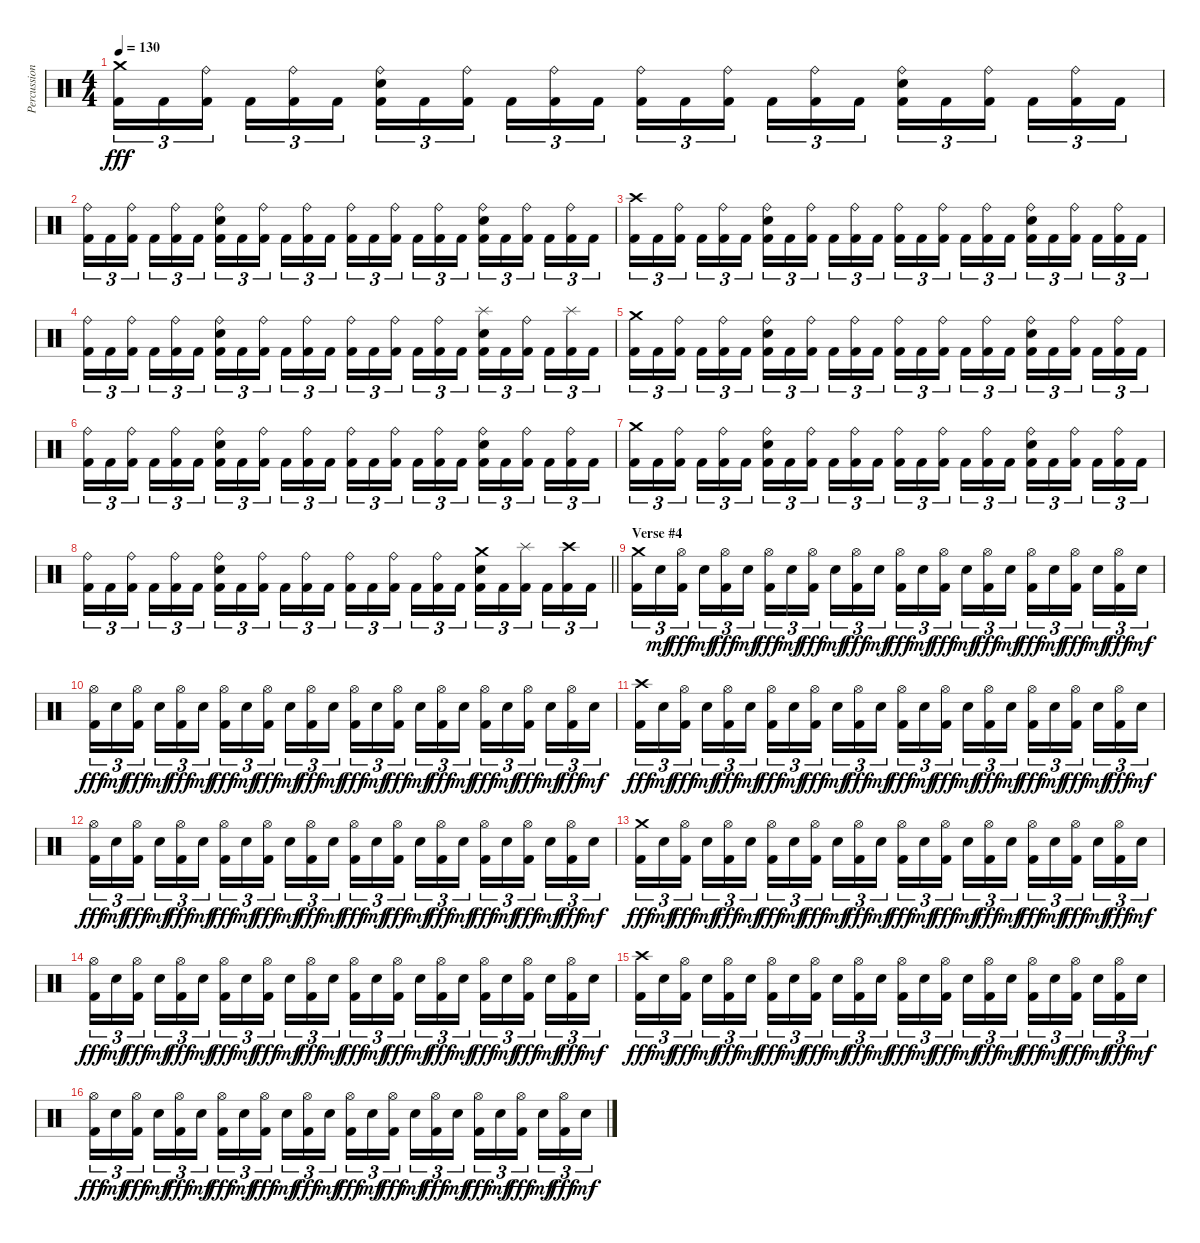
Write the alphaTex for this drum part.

\track ("Percussions" "Percussion") {instrument percussion}
\staff {score}
\articulation defaults
\ts (4 4)
\tempo 130
\clef neutral
\ks c
("Crash medium (hit)" "Kick (hit) 2").16{tu (3 2) dy fff} "Kick (hit) 2".16{tu (3 2)} ("Ride (bell)" "Kick (hit) 2").16{tu (3 2) beam splitsecondary} "Kick (hit) 2".16{tu (3 2)} ("Ride (bell)" "Kick (hit) 2").16{tu (3 2)} "Kick (hit) 2".16{tu (3 2)} ("Ride (bell)" "Snare (hit) 2" "Kick (hit) 2").16{tu (3 2)} "Kick (hit) 2".16{tu (3 2)} ("Ride (bell)" "Kick (hit) 2").16{tu (3 2) beam splitsecondary} "Kick (hit) 2".16{tu (3 2)} ("Ride (bell)" "Kick (hit) 2").16{tu (3 2)} "Kick (hit) 2".16{tu (3 2)} ("Ride (bell)" "Kick (hit) 2").16{tu (3 2)} "Kick (hit) 2".16{tu (3 2)} ("Ride (bell)" "Kick (hit) 2").16{tu (3 2) beam splitsecondary} "Kick (hit) 2".16{tu (3 2)} ("Ride (bell)" "Kick (hit) 2").16{tu (3 2)} "Kick (hit) 2".16{tu (3 2)} ("Ride (bell)" "Snare (hit) 2" "Kick (hit) 2").16{tu (3 2)} "Kick (hit) 2".16{tu (3 2)} ("Ride (bell)" "Kick (hit) 2").16{tu (3 2) beam splitsecondary} "Kick (hit) 2".16{tu (3 2)} ("Ride (bell)" "Kick (hit) 2").16{tu (3 2)} "Kick (hit) 2".16{tu (3 2)} |
("Ride (bell)" "Kick (hit) 2").16{tu (3 2)} "Kick (hit) 2".16{tu (3 2)} ("Ride (bell)" "Kick (hit) 2").16{tu (3 2) beam splitsecondary} "Kick (hit) 2".16{tu (3 2)} ("Ride (bell)" "Kick (hit) 2").16{tu (3 2)} "Kick (hit) 2".16{tu (3 2)} ("Ride (bell)" "Snare (hit) 2" "Kick (hit) 2").16{tu (3 2)} "Kick (hit) 2".16{tu (3 2)} ("Ride (bell)" "Kick (hit) 2").16{tu (3 2) beam splitsecondary} "Kick (hit) 2".16{tu (3 2)} ("Ride (bell)" "Kick (hit) 2").16{tu (3 2)} "Kick (hit) 2".16{tu (3 2)} ("Ride (bell)" "Kick (hit) 2").16{tu (3 2)} "Kick (hit) 2".16{tu (3 2)} ("Ride (bell)" "Kick (hit) 2").16{tu (3 2) beam splitsecondary} "Kick (hit) 2".16{tu (3 2)} ("Ride (bell)" "Kick (hit) 2").16{tu (3 2)} "Kick (hit) 2".16{tu (3 2)} ("Ride (bell)" "Snare (hit) 2" "Kick (hit) 2").16{tu (3 2)} "Kick (hit) 2".16{tu (3 2)} ("Ride (bell)" "Kick (hit) 2").16{tu (3 2) beam splitsecondary} "Kick (hit) 2".16{tu (3 2)} ("Ride (bell)" "Kick (hit) 2").16{tu (3 2)} "Kick (hit) 2".16{tu (3 2)} |
("Crash high (hit)" "Kick (hit) 2").16{tu (3 2)} "Kick (hit) 2".16{tu (3 2)} ("Ride (bell)" "Kick (hit) 2").16{tu (3 2) beam splitsecondary} "Kick (hit) 2".16{tu (3 2)} ("Ride (bell)" "Kick (hit) 2").16{tu (3 2)} "Kick (hit) 2".16{tu (3 2)} ("Ride (bell)" "Snare (hit) 2" "Kick (hit) 2").16{tu (3 2)} "Kick (hit) 2".16{tu (3 2)} ("Ride (bell)" "Kick (hit) 2").16{tu (3 2) beam splitsecondary} "Kick (hit) 2".16{tu (3 2)} ("Ride (bell)" "Kick (hit) 2").16{tu (3 2)} "Kick (hit) 2".16{tu (3 2)} ("Ride (bell)" "Kick (hit) 2").16{tu (3 2)} "Kick (hit) 2".16{tu (3 2)} ("Ride (bell)" "Kick (hit) 2").16{tu (3 2) beam splitsecondary} "Kick (hit) 2".16{tu (3 2)} ("Ride (bell)" "Kick (hit) 2").16{tu (3 2)} "Kick (hit) 2".16{tu (3 2)} ("Ride (bell)" "Snare (hit) 2" "Kick (hit) 2").16{tu (3 2)} "Kick (hit) 2".16{tu (3 2)} ("Ride (bell)" "Kick (hit) 2").16{tu (3 2) beam splitsecondary} "Kick (hit) 2".16{tu (3 2)} ("Ride (bell)" "Kick (hit) 2").16{tu (3 2)} "Kick (hit) 2".16{tu (3 2)} |
("Ride (bell)" "Kick (hit) 2").16{tu (3 2)} "Kick (hit) 2".16{tu (3 2)} ("Ride (bell)" "Kick (hit) 2").16{tu (3 2) beam splitsecondary} "Kick (hit) 2".16{tu (3 2)} ("Ride (bell)" "Kick (hit) 2").16{tu (3 2)} "Kick (hit) 2".16{tu (3 2)} ("Ride (bell)" "Snare (hit) 2" "Kick (hit) 2").16{tu (3 2)} "Kick (hit) 2".16{tu (3 2)} ("Ride (bell)" "Kick (hit) 2").16{tu (3 2) beam splitsecondary} "Kick (hit) 2".16{tu (3 2)} ("Ride (bell)" "Kick (hit) 2").16{tu (3 2)} "Kick (hit) 2".16{tu (3 2)} ("Ride (bell)" "Kick (hit) 2").16{tu (3 2)} "Kick (hit) 2".16{tu (3 2)} ("Ride (bell)" "Kick (hit) 2").16{tu (3 2) beam splitsecondary} "Kick (hit) 2".16{tu (3 2)} ("Ride (bell)" "Kick (hit) 2").16{tu (3 2)} "Kick (hit) 2".16{tu (3 2)} ("Splash (hit)" "Snare (hit) 2" "Kick (hit) 2").16{tu (3 2)} "Kick (hit) 2".16{tu (3 2)} ("Ride (bell)" "Kick (hit) 2").16{tu (3 2) beam splitsecondary} "Kick (hit) 2".16{tu (3 2)} ("Splash (hit)" "Kick (hit) 2").16{tu (3 2)} "Kick (hit) 2".16{tu (3 2)} |
("Crash medium (hit)" "Kick (hit) 2").16{tu (3 2)} "Kick (hit) 2".16{tu (3 2)} ("Ride (bell)" "Kick (hit) 2").16{tu (3 2) beam splitsecondary} "Kick (hit) 2".16{tu (3 2)} ("Ride (bell)" "Kick (hit) 2").16{tu (3 2)} "Kick (hit) 2".16{tu (3 2)} ("Ride (bell)" "Snare (hit) 2" "Kick (hit) 2").16{tu (3 2)} "Kick (hit) 2".16{tu (3 2)} ("Ride (bell)" "Kick (hit) 2").16{tu (3 2) beam splitsecondary} "Kick (hit) 2".16{tu (3 2)} ("Ride (bell)" "Kick (hit) 2").16{tu (3 2)} "Kick (hit) 2".16{tu (3 2)} ("Ride (bell)" "Kick (hit) 2").16{tu (3 2)} "Kick (hit) 2".16{tu (3 2)} ("Ride (bell)" "Kick (hit) 2").16{tu (3 2) beam splitsecondary} "Kick (hit) 2".16{tu (3 2)} ("Ride (bell)" "Kick (hit) 2").16{tu (3 2)} "Kick (hit) 2".16{tu (3 2)} ("Ride (bell)" "Snare (hit) 2" "Kick (hit) 2").16{tu (3 2)} "Kick (hit) 2".16{tu (3 2)} ("Ride (bell)" "Kick (hit) 2").16{tu (3 2) beam splitsecondary} "Kick (hit) 2".16{tu (3 2)} ("Ride (bell)" "Kick (hit) 2").16{tu (3 2)} "Kick (hit) 2".16{tu (3 2)} |
("Ride (bell)" "Kick (hit) 2").16{tu (3 2)} "Kick (hit) 2".16{tu (3 2)} ("Ride (bell)" "Kick (hit) 2").16{tu (3 2) beam splitsecondary} "Kick (hit) 2".16{tu (3 2)} ("Ride (bell)" "Kick (hit) 2").16{tu (3 2)} "Kick (hit) 2".16{tu (3 2)} ("Ride (bell)" "Snare (hit) 2" "Kick (hit) 2").16{tu (3 2)} "Kick (hit) 2".16{tu (3 2)} ("Ride (bell)" "Kick (hit) 2").16{tu (3 2) beam splitsecondary} "Kick (hit) 2".16{tu (3 2)} ("Ride (bell)" "Kick (hit) 2").16{tu (3 2)} "Kick (hit) 2".16{tu (3 2)} ("Ride (bell)" "Kick (hit) 2").16{tu (3 2)} "Kick (hit) 2".16{tu (3 2)} ("Ride (bell)" "Kick (hit) 2").16{tu (3 2) beam splitsecondary} "Kick (hit) 2".16{tu (3 2)} ("Ride (bell)" "Kick (hit) 2").16{tu (3 2)} "Kick (hit) 2".16{tu (3 2)} ("Ride (bell)" "Snare (hit) 2" "Kick (hit) 2").16{tu (3 2)} "Kick (hit) 2".16{tu (3 2)} ("Ride (bell)" "Kick (hit) 2").16{tu (3 2) beam splitsecondary} "Kick (hit) 2".16{tu (3 2)} ("Ride (bell)" "Kick (hit) 2").16{tu (3 2)} "Kick (hit) 2".16{tu (3 2)} |
("Crash medium (hit)" "Kick (hit) 2").16{tu (3 2)} "Kick (hit) 2".16{tu (3 2)} ("Ride (bell)" "Kick (hit) 2").16{tu (3 2) beam splitsecondary} "Kick (hit) 2".16{tu (3 2)} ("Ride (bell)" "Kick (hit) 2").16{tu (3 2)} "Kick (hit) 2".16{tu (3 2)} ("Ride (bell)" "Snare (hit) 2" "Kick (hit) 2").16{tu (3 2)} "Kick (hit) 2".16{tu (3 2)} ("Ride (bell)" "Kick (hit) 2").16{tu (3 2) beam splitsecondary} "Kick (hit) 2".16{tu (3 2)} ("Ride (bell)" "Kick (hit) 2").16{tu (3 2)} "Kick (hit) 2".16{tu (3 2)} ("Ride (bell)" "Kick (hit) 2").16{tu (3 2)} "Kick (hit) 2".16{tu (3 2)} ("Ride (bell)" "Kick (hit) 2").16{tu (3 2) beam splitsecondary} "Kick (hit) 2".16{tu (3 2)} ("Ride (bell)" "Kick (hit) 2").16{tu (3 2)} "Kick (hit) 2".16{tu (3 2)} ("Ride (bell)" "Snare (hit) 2" "Kick (hit) 2").16{tu (3 2)} "Kick (hit) 2".16{tu (3 2)} ("Ride (bell)" "Kick (hit) 2").16{tu (3 2) beam splitsecondary} "Kick (hit) 2".16{tu (3 2)} ("Ride (bell)" "Kick (hit) 2").16{tu (3 2)} "Kick (hit) 2".16{tu (3 2)} |
\barLineRight lightlight
("Ride (bell)" "Kick (hit) 2").16{tu (3 2)} "Kick (hit) 2".16{tu (3 2)} ("Ride (bell)" "Kick (hit) 2").16{tu (3 2) beam splitsecondary} "Kick (hit) 2".16{tu (3 2)} ("Ride (bell)" "Kick (hit) 2").16{tu (3 2)} "Kick (hit) 2".16{tu (3 2)} ("Ride (bell)" "Snare (hit) 2" "Kick (hit) 2").16{tu (3 2)} "Kick (hit) 2".16{tu (3 2)} ("Ride (bell)" "Kick (hit) 2").16{tu (3 2) beam splitsecondary} "Kick (hit) 2".16{tu (3 2)} ("Ride (bell)" "Kick (hit) 2").16{tu (3 2)} "Kick (hit) 2".16{tu (3 2)} ("Ride (bell)" "Kick (hit) 2").16{tu (3 2)} "Kick (hit) 2".16{tu (3 2)} ("Ride (bell)" "Kick (hit) 2").16{tu (3 2) beam splitsecondary} "Kick (hit) 2".16{tu (3 2)} ("Ride (bell)" "Kick (hit) 2").16{tu (3 2)} "Kick (hit) 2".16{tu (3 2)} ("Crash medium (hit)" "Snare (hit) 2" "Kick (hit) 2").16{tu (3 2)} "Kick (hit) 2".16{tu (3 2)} ("Splash (hit)" "Kick (hit) 2").16{tu (3 2) beam splitsecondary} "Kick (hit) 2".16{tu (3 2)} ("Crash high (hit)" "Kick (hit) 2").16{tu (3 2)} "Kick (hit) 2".16{tu (3 2)} |
\section ("" "Verse #4")
("Crash medium (hit)" "Kick (hit) 2").16{tu (3 2)} "Snare (hit) 2".16{tu (3 2) dy mf} ("Hi-Hat (open)" "Kick (hit) 2").16{tu (3 2) dy fff beam splitsecondary} "Snare (hit) 2".16{tu (3 2) dy mf} ("Hi-Hat (open)" "Kick (hit) 2").16{tu (3 2) dy fff} "Snare (hit) 2".16{tu (3 2) dy mf} ("Hi-Hat (open)" "Kick (hit) 2").16{tu (3 2) dy fff} "Snare (hit) 2".16{tu (3 2) dy mf} ("Hi-Hat (open)" "Kick (hit) 2").16{tu (3 2) dy fff beam splitsecondary} "Snare (hit) 2".16{tu (3 2) dy mf} ("Hi-Hat (open)" "Kick (hit) 2").16{tu (3 2) dy fff} "Snare (hit) 2".16{tu (3 2) dy mf} ("Hi-Hat (open)" "Kick (hit) 2").16{tu (3 2) dy fff} "Snare (hit) 2".16{tu (3 2) dy mf} ("Hi-Hat (open)" "Kick (hit) 2").16{tu (3 2) dy fff beam splitsecondary} "Snare (hit) 2".16{tu (3 2) dy mf} ("Hi-Hat (open)" "Kick (hit) 2").16{tu (3 2) dy fff} "Snare (hit) 2".16{tu (3 2) dy mf} ("Hi-Hat (open)" "Kick (hit) 2").16{tu (3 2) dy fff} "Snare (hit) 2".16{tu (3 2) dy mf} ("Hi-Hat (open)" "Kick (hit) 2").16{tu (3 2) dy fff beam splitsecondary} "Snare (hit) 2".16{tu (3 2) dy mf} ("Hi-Hat (open)" "Kick (hit) 2").16{tu (3 2) dy fff} "Snare (hit) 2".16{tu (3 2) dy mf} |
("Hi-Hat (open)" "Kick (hit) 2").16{tu (3 2) dy fff} "Snare (hit) 2".16{tu (3 2) dy mf} ("Hi-Hat (open)" "Kick (hit) 2").16{tu (3 2) dy fff beam splitsecondary} "Snare (hit) 2".16{tu (3 2) dy mf} ("Hi-Hat (open)" "Kick (hit) 2").16{tu (3 2) dy fff} "Snare (hit) 2".16{tu (3 2) dy mf} ("Hi-Hat (open)" "Kick (hit) 2").16{tu (3 2) dy fff} "Snare (hit) 2".16{tu (3 2) dy mf} ("Hi-Hat (open)" "Kick (hit) 2").16{tu (3 2) dy fff beam splitsecondary} "Snare (hit) 2".16{tu (3 2) dy mf} ("Hi-Hat (open)" "Kick (hit) 2").16{tu (3 2) dy fff} "Snare (hit) 2".16{tu (3 2) dy mf} ("Hi-Hat (open)" "Kick (hit) 2").16{tu (3 2) dy fff} "Snare (hit) 2".16{tu (3 2) dy mf} ("Hi-Hat (open)" "Kick (hit) 2").16{tu (3 2) dy fff beam splitsecondary} "Snare (hit) 2".16{tu (3 2) dy mf} ("Hi-Hat (open)" "Kick (hit) 2").16{tu (3 2) dy fff} "Snare (hit) 2".16{tu (3 2) dy mf} ("Hi-Hat (open)" "Kick (hit) 2").16{tu (3 2) dy fff} "Snare (hit) 2".16{tu (3 2) dy mf} ("Hi-Hat (open)" "Kick (hit) 2").16{tu (3 2) dy fff beam splitsecondary} "Snare (hit) 2".16{tu (3 2) dy mf} ("Hi-Hat (open)" "Kick (hit) 2").16{tu (3 2) dy fff} "Snare (hit) 2".16{tu (3 2) dy mf} |
("Crash high (hit)" "Kick (hit) 2").16{tu (3 2) dy fff} "Snare (hit) 2".16{tu (3 2) dy mf} ("Hi-Hat (open)" "Kick (hit) 2").16{tu (3 2) dy fff beam splitsecondary} "Snare (hit) 2".16{tu (3 2) dy mf} ("Hi-Hat (open)" "Kick (hit) 2").16{tu (3 2) dy fff} "Snare (hit) 2".16{tu (3 2) dy mf} ("Hi-Hat (open)" "Kick (hit) 2").16{tu (3 2) dy fff} "Snare (hit) 2".16{tu (3 2) dy mf} ("Hi-Hat (open)" "Kick (hit) 2").16{tu (3 2) dy fff beam splitsecondary} "Snare (hit) 2".16{tu (3 2) dy mf} ("Hi-Hat (open)" "Kick (hit) 2").16{tu (3 2) dy fff} "Snare (hit) 2".16{tu (3 2) dy mf} ("Hi-Hat (open)" "Kick (hit) 2").16{tu (3 2) dy fff} "Snare (hit) 2".16{tu (3 2) dy mf} ("Hi-Hat (open)" "Kick (hit) 2").16{tu (3 2) dy fff beam splitsecondary} "Snare (hit) 2".16{tu (3 2) dy mf} ("Hi-Hat (open)" "Kick (hit) 2").16{tu (3 2) dy fff} "Snare (hit) 2".16{tu (3 2) dy mf} ("Hi-Hat (open)" "Kick (hit) 2").16{tu (3 2) dy fff} "Snare (hit) 2".16{tu (3 2) dy mf} ("Hi-Hat (open)" "Kick (hit) 2").16{tu (3 2) dy fff beam splitsecondary} "Snare (hit) 2".16{tu (3 2) dy mf} ("Hi-Hat (open)" "Kick (hit) 2").16{tu (3 2) dy fff} "Snare (hit) 2".16{tu (3 2) dy mf} |
("Hi-Hat (open)" "Kick (hit) 2").16{tu (3 2) dy fff} "Snare (hit) 2".16{tu (3 2) dy mf} ("Hi-Hat (open)" "Kick (hit) 2").16{tu (3 2) dy fff beam splitsecondary} "Snare (hit) 2".16{tu (3 2) dy mf} ("Hi-Hat (open)" "Kick (hit) 2").16{tu (3 2) dy fff} "Snare (hit) 2".16{tu (3 2) dy mf} ("Hi-Hat (open)" "Kick (hit) 2").16{tu (3 2) dy fff} "Snare (hit) 2".16{tu (3 2) dy mf} ("Hi-Hat (open)" "Kick (hit) 2").16{tu (3 2) dy fff beam splitsecondary} "Snare (hit) 2".16{tu (3 2) dy mf} ("Hi-Hat (open)" "Kick (hit) 2").16{tu (3 2) dy fff} "Snare (hit) 2".16{tu (3 2) dy mf} ("Hi-Hat (open)" "Kick (hit) 2").16{tu (3 2) dy fff} "Snare (hit) 2".16{tu (3 2) dy mf} ("Hi-Hat (open)" "Kick (hit) 2").16{tu (3 2) dy fff beam splitsecondary} "Snare (hit) 2".16{tu (3 2) dy mf} ("Hi-Hat (open)" "Kick (hit) 2").16{tu (3 2) dy fff} "Snare (hit) 2".16{tu (3 2) dy mf} ("Hi-Hat (open)" "Kick (hit) 2").16{tu (3 2) dy fff} "Snare (hit) 2".16{tu (3 2) dy mf} ("Hi-Hat (open)" "Kick (hit) 2").16{tu (3 2) dy fff beam splitsecondary} "Snare (hit) 2".16{tu (3 2) dy mf} ("Hi-Hat (open)" "Kick (hit) 2").16{tu (3 2) dy fff} "Snare (hit) 2".16{tu (3 2) dy mf} |
("Crash medium (hit)" "Kick (hit) 2").16{tu (3 2) dy fff} "Snare (hit) 2".16{tu (3 2) dy mf} ("Hi-Hat (open)" "Kick (hit) 2").16{tu (3 2) dy fff beam splitsecondary} "Snare (hit) 2".16{tu (3 2) dy mf} ("Hi-Hat (open)" "Kick (hit) 2").16{tu (3 2) dy fff} "Snare (hit) 2".16{tu (3 2) dy mf} ("Hi-Hat (open)" "Kick (hit) 2").16{tu (3 2) dy fff} "Snare (hit) 2".16{tu (3 2) dy mf} ("Hi-Hat (open)" "Kick (hit) 2").16{tu (3 2) dy fff beam splitsecondary} "Snare (hit) 2".16{tu (3 2) dy mf} ("Hi-Hat (open)" "Kick (hit) 2").16{tu (3 2) dy fff} "Snare (hit) 2".16{tu (3 2) dy mf} ("Hi-Hat (open)" "Kick (hit) 2").16{tu (3 2) dy fff} "Snare (hit) 2".16{tu (3 2) dy mf} ("Hi-Hat (open)" "Kick (hit) 2").16{tu (3 2) dy fff beam splitsecondary} "Snare (hit) 2".16{tu (3 2) dy mf} ("Hi-Hat (open)" "Kick (hit) 2").16{tu (3 2) dy fff} "Snare (hit) 2".16{tu (3 2) dy mf} ("Hi-Hat (open)" "Kick (hit) 2").16{tu (3 2) dy fff} "Snare (hit) 2".16{tu (3 2) dy mf} ("Hi-Hat (open)" "Kick (hit) 2").16{tu (3 2) dy fff beam splitsecondary} "Snare (hit) 2".16{tu (3 2) dy mf} ("Hi-Hat (open)" "Kick (hit) 2").16{tu (3 2) dy fff} "Snare (hit) 2".16{tu (3 2) dy mf} |
("Hi-Hat (open)" "Kick (hit) 2").16{tu (3 2) dy fff} "Snare (hit) 2".16{tu (3 2) dy mf} ("Hi-Hat (open)" "Kick (hit) 2").16{tu (3 2) dy fff beam splitsecondary} "Snare (hit) 2".16{tu (3 2) dy mf} ("Hi-Hat (open)" "Kick (hit) 2").16{tu (3 2) dy fff} "Snare (hit) 2".16{tu (3 2) dy mf} ("Hi-Hat (open)" "Kick (hit) 2").16{tu (3 2) dy fff} "Snare (hit) 2".16{tu (3 2) dy mf} ("Hi-Hat (open)" "Kick (hit) 2").16{tu (3 2) dy fff beam splitsecondary} "Snare (hit) 2".16{tu (3 2) dy mf} ("Hi-Hat (open)" "Kick (hit) 2").16{tu (3 2) dy fff} "Snare (hit) 2".16{tu (3 2) dy mf} ("Hi-Hat (open)" "Kick (hit) 2").16{tu (3 2) dy fff} "Snare (hit) 2".16{tu (3 2) dy mf} ("Hi-Hat (open)" "Kick (hit) 2").16{tu (3 2) dy fff beam splitsecondary} "Snare (hit) 2".16{tu (3 2) dy mf} ("Hi-Hat (open)" "Kick (hit) 2").16{tu (3 2) dy fff} "Snare (hit) 2".16{tu (3 2) dy mf} ("Hi-Hat (open)" "Kick (hit) 2").16{tu (3 2) dy fff} "Snare (hit) 2".16{tu (3 2) dy mf} ("Hi-Hat (open)" "Kick (hit) 2").16{tu (3 2) dy fff beam splitsecondary} "Snare (hit) 2".16{tu (3 2) dy mf} ("Hi-Hat (open)" "Kick (hit) 2").16{tu (3 2) dy fff} "Snare (hit) 2".16{tu (3 2) dy mf} |
("Crash high (hit)" "Kick (hit) 2").16{tu (3 2) dy fff} "Snare (hit) 2".16{tu (3 2) dy mf} ("Hi-Hat (open)" "Kick (hit) 2").16{tu (3 2) dy fff beam splitsecondary} "Snare (hit) 2".16{tu (3 2) dy mf} ("Hi-Hat (open)" "Kick (hit) 2").16{tu (3 2) dy fff} "Snare (hit) 2".16{tu (3 2) dy mf} ("Hi-Hat (open)" "Kick (hit) 2").16{tu (3 2) dy fff} "Snare (hit) 2".16{tu (3 2) dy mf} ("Hi-Hat (open)" "Kick (hit) 2").16{tu (3 2) dy fff beam splitsecondary} "Snare (hit) 2".16{tu (3 2) dy mf} ("Hi-Hat (open)" "Kick (hit) 2").16{tu (3 2) dy fff} "Snare (hit) 2".16{tu (3 2) dy mf} ("Hi-Hat (open)" "Kick (hit) 2").16{tu (3 2) dy fff} "Snare (hit) 2".16{tu (3 2) dy mf} ("Hi-Hat (open)" "Kick (hit) 2").16{tu (3 2) dy fff beam splitsecondary} "Snare (hit) 2".16{tu (3 2) dy mf} ("Hi-Hat (open)" "Kick (hit) 2").16{tu (3 2) dy fff} "Snare (hit) 2".16{tu (3 2) dy mf} ("Hi-Hat (open)" "Kick (hit) 2").16{tu (3 2) dy fff} "Snare (hit) 2".16{tu (3 2) dy mf} ("Hi-Hat (open)" "Kick (hit) 2").16{tu (3 2) dy fff beam splitsecondary} "Snare (hit) 2".16{tu (3 2) dy mf} ("Hi-Hat (open)" "Kick (hit) 2").16{tu (3 2) dy fff} "Snare (hit) 2".16{tu (3 2) dy mf} |
("Hi-Hat (open)" "Kick (hit) 2").16{tu (3 2) dy fff} "Snare (hit) 2".16{tu (3 2) dy mf} ("Hi-Hat (open)" "Kick (hit) 2").16{tu (3 2) dy fff beam splitsecondary} "Snare (hit) 2".16{tu (3 2) dy mf} ("Hi-Hat (open)" "Kick (hit) 2").16{tu (3 2) dy fff} "Snare (hit) 2".16{tu (3 2) dy mf} ("Hi-Hat (open)" "Kick (hit) 2").16{tu (3 2) dy fff} "Snare (hit) 2".16{tu (3 2) dy mf} ("Hi-Hat (open)" "Kick (hit) 2").16{tu (3 2) dy fff beam splitsecondary} "Snare (hit) 2".16{tu (3 2) dy mf} ("Hi-Hat (open)" "Kick (hit) 2").16{tu (3 2) dy fff} "Snare (hit) 2".16{tu (3 2) dy mf} ("Hi-Hat (open)" "Kick (hit) 2").16{tu (3 2) dy fff} "Snare (hit) 2".16{tu (3 2) dy mf} ("Hi-Hat (open)" "Kick (hit) 2").16{tu (3 2) dy fff beam splitsecondary} "Snare (hit) 2".16{tu (3 2) dy mf} ("Hi-Hat (open)" "Kick (hit) 2").16{tu (3 2) dy fff} "Snare (hit) 2".16{tu (3 2) dy mf} ("Hi-Hat (open)" "Kick (hit) 2").16{tu (3 2) dy fff} "Snare (hit) 2".16{tu (3 2) dy mf} ("Hi-Hat (open)" "Kick (hit) 2").16{tu (3 2) dy fff beam splitsecondary} "Snare (hit) 2".16{tu (3 2) dy mf} ("Hi-Hat (open)" "Kick (hit) 2").16{tu (3 2) dy fff} "Snare (hit) 2".16{tu (3 2) dy mf}
